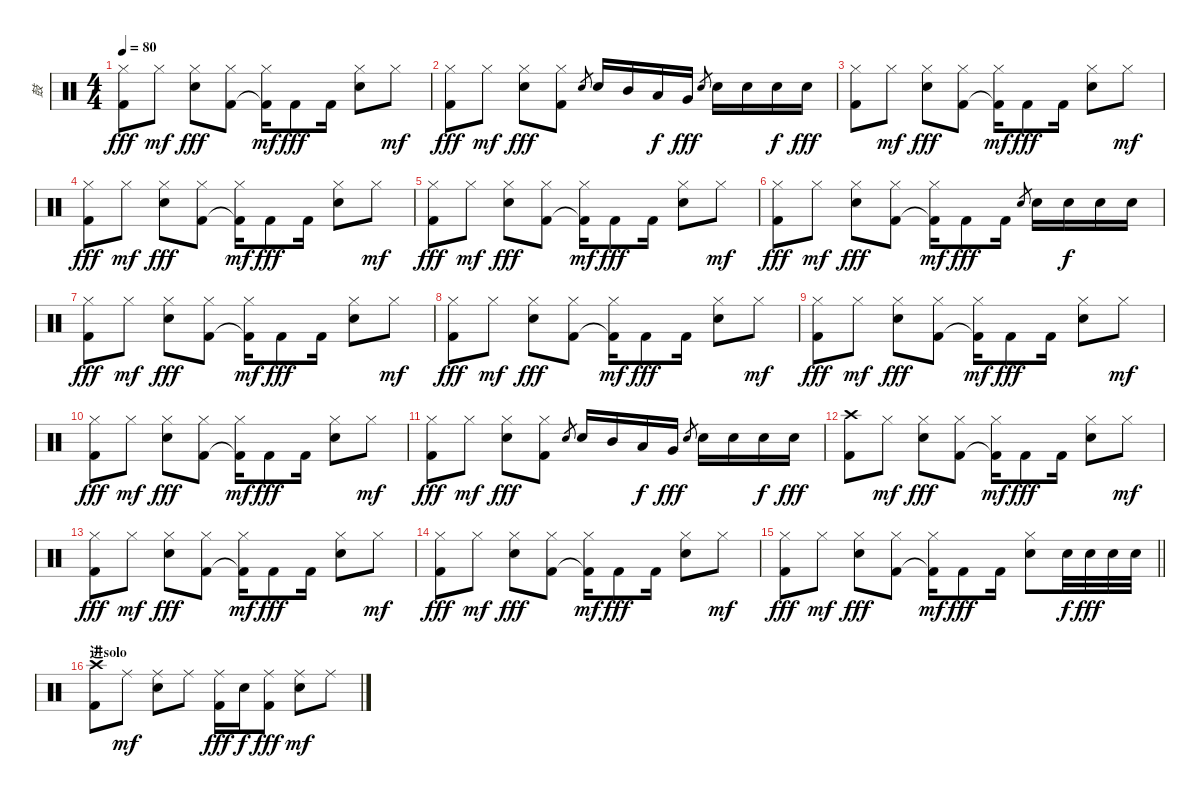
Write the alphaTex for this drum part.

\track ("鼓" "鼓") {instrument percussion}
\staff {score}
\articulation defaults
\ts (4 4)
\tempo 80
\clef neutral
\ks c
("Hi-Hat (closed)" "Kick (hit) 2").8{dy fff} "Hi-Hat (closed)".8{dy mf} ("Hi-Hat (closed)" "Electric Snare (hit)").8{dy fff} ("Hi-Hat (closed)" "Kick (hit) 2").8 ("Hi-Hat (closed)" "Kick (hit) 2"{t}).16{dy mf} "Kick (hit) 2".8{dy fff} "Kick (hit) 2".16 ("Hi-Hat (closed)" "Electric Snare (hit)").8 "Hi-Hat (closed)".8{dy mf} |
("Hi-Hat (closed)" "Kick (hit) 2").8{dy fff} "Hi-Hat (closed)".8{dy mf} ("Hi-Hat (closed)" "Electric Snare (hit)").8{dy fff} ("Hi-Hat (closed)" "Kick (hit) 2").8 "Electric Snare (hit)".8{gr} "Electric Snare (hit)".16 "Mid Tom (hit)".16 "Low Tom (hit)".16{dy f} "Very Low Tom (hit)".16{dy fff} "Electric Snare (hit)".8{gr} "Electric Snare (hit)".16 "Electric Snare (hit)".16 "Electric Snare (hit)".16{dy f} "Electric Snare (hit)".16{dy fff} |
("Hi-Hat (closed)" "Kick (hit) 2").8 "Hi-Hat (closed)".8{dy mf} ("Hi-Hat (closed)" "Electric Snare (hit)").8{dy fff} ("Hi-Hat (closed)" "Kick (hit) 2").8 ("Hi-Hat (closed)" "Kick (hit) 2"{t}).16{dy mf} "Kick (hit) 2".8{dy fff} "Kick (hit) 2".16 ("Hi-Hat (closed)" "Electric Snare (hit)").8 "Hi-Hat (closed)".8{dy mf} |
("Hi-Hat (closed)" "Kick (hit) 2").8{dy fff} "Hi-Hat (closed)".8{dy mf} ("Hi-Hat (closed)" "Electric Snare (hit)").8{dy fff} ("Hi-Hat (closed)" "Kick (hit) 2").8 ("Hi-Hat (closed)" "Kick (hit) 2"{t}).16{dy mf} "Kick (hit) 2".8{dy fff} "Kick (hit) 2".16 ("Hi-Hat (closed)" "Electric Snare (hit)").8 "Hi-Hat (closed)".8{dy mf} |
("Hi-Hat (closed)" "Kick (hit) 2").8{dy fff} "Hi-Hat (closed)".8{dy mf} ("Hi-Hat (closed)" "Electric Snare (hit)").8{dy fff} ("Hi-Hat (closed)" "Kick (hit) 2").8 ("Hi-Hat (closed)" "Kick (hit) 2"{t}).16{dy mf} "Kick (hit) 2".8{dy fff} "Kick (hit) 2".16 ("Hi-Hat (closed)" "Electric Snare (hit)").8 "Hi-Hat (closed)".8{dy mf} |
("Hi-Hat (closed)" "Kick (hit) 2").8{dy fff} "Hi-Hat (closed)".8{dy mf} ("Hi-Hat (closed)" "Electric Snare (hit)").8{dy fff} ("Hi-Hat (closed)" "Kick (hit) 2").8 ("Hi-Hat (closed)" "Kick (hit) 2"{t}).16{dy mf} "Kick (hit) 2".8{dy fff} "Kick (hit) 2".16 "Electric Snare (hit)".8{gr} "Electric Snare (hit)".16 "Electric Snare (hit)".16{dy f} "Electric Snare (hit)".16 "Electric Snare (hit)".16 |
("Hi-Hat (closed)" "Kick (hit) 2").8{dy fff} "Hi-Hat (closed)".8{dy mf} ("Hi-Hat (closed)" "Electric Snare (hit)").8{dy fff} ("Hi-Hat (closed)" "Kick (hit) 2").8 ("Hi-Hat (closed)" "Kick (hit) 2"{t}).16{dy mf} "Kick (hit) 2".8{dy fff} "Kick (hit) 2".16 ("Hi-Hat (closed)" "Electric Snare (hit)").8 "Hi-Hat (closed)".8{dy mf} |
("Hi-Hat (closed)" "Kick (hit) 2").8{dy fff} "Hi-Hat (closed)".8{dy mf} ("Hi-Hat (closed)" "Electric Snare (hit)").8{dy fff} ("Hi-Hat (closed)" "Kick (hit) 2").8 ("Hi-Hat (closed)" "Kick (hit) 2"{t}).16{dy mf} "Kick (hit) 2".8{dy fff} "Kick (hit) 2".16 ("Hi-Hat (closed)" "Electric Snare (hit)").8 "Hi-Hat (closed)".8{dy mf} |
("Hi-Hat (closed)" "Kick (hit) 2").8{dy fff} "Hi-Hat (closed)".8{dy mf} ("Hi-Hat (closed)" "Electric Snare (hit)").8{dy fff} ("Hi-Hat (closed)" "Kick (hit) 2").8 ("Hi-Hat (closed)" "Kick (hit) 2"{t}).16{dy mf} "Kick (hit) 2".8{dy fff} "Kick (hit) 2".16 ("Hi-Hat (closed)" "Electric Snare (hit)").8 "Hi-Hat (closed)".8{dy mf} |
("Hi-Hat (closed)" "Kick (hit) 2").8{dy fff} "Hi-Hat (closed)".8{dy mf} ("Hi-Hat (closed)" "Electric Snare (hit)").8{dy fff} ("Hi-Hat (closed)" "Kick (hit) 2").8 ("Hi-Hat (closed)" "Kick (hit) 2"{t}).16{dy mf} "Kick (hit) 2".8{dy fff} "Kick (hit) 2".16 ("Hi-Hat (closed)" "Electric Snare (hit)").8 "Hi-Hat (closed)".8{dy mf} |
("Hi-Hat (closed)" "Kick (hit) 2").8{dy fff} "Hi-Hat (closed)".8{dy mf} ("Hi-Hat (closed)" "Electric Snare (hit)").8{dy fff} ("Hi-Hat (closed)" "Kick (hit) 2").8 "Electric Snare (hit)".8{gr} "Electric Snare (hit)".16 "Mid Tom (hit)".16 "Low Tom (hit)".16{dy f} "Very Low Tom (hit)".16{dy fff} "Electric Snare (hit)".8{gr} "Electric Snare (hit)".16 "Electric Snare (hit)".16 "Electric Snare (hit)".16{dy f} "Electric Snare (hit)".16{dy fff} |
("Crash high (hit)" "Kick (hit) 2").8 "Hi-Hat (closed)".8{dy mf} ("Hi-Hat (closed)" "Electric Snare (hit)").8{dy fff} ("Hi-Hat (closed)" "Kick (hit) 2").8 ("Hi-Hat (closed)" "Kick (hit) 2"{t}).16{dy mf} "Kick (hit) 2".8{dy fff} "Kick (hit) 2".16 ("Hi-Hat (closed)" "Electric Snare (hit)").8 "Hi-Hat (closed)".8{dy mf} |
("Hi-Hat (closed)" "Kick (hit) 2").8{dy fff} "Hi-Hat (closed)".8{dy mf} ("Hi-Hat (closed)" "Electric Snare (hit)").8{dy fff} ("Hi-Hat (closed)" "Kick (hit) 2").8 ("Hi-Hat (closed)" "Kick (hit) 2"{t}).16{dy mf} "Kick (hit) 2".8{dy fff} "Kick (hit) 2".16 ("Hi-Hat (closed)" "Electric Snare (hit)").8 "Hi-Hat (closed)".8{dy mf} |
("Hi-Hat (closed)" "Kick (hit) 2").8{dy fff} "Hi-Hat (closed)".8{dy mf} ("Hi-Hat (closed)" "Electric Snare (hit)").8{dy fff} ("Hi-Hat (closed)" "Kick (hit) 2").8 ("Hi-Hat (closed)" "Kick (hit) 2"{t}).16{dy mf} "Kick (hit) 2".8{dy fff} "Kick (hit) 2".16 ("Hi-Hat (closed)" "Electric Snare (hit)").8 "Hi-Hat (closed)".8{dy mf} |
\barLineRight lightlight
("Hi-Hat (closed)" "Kick (hit) 2").8{dy fff} "Hi-Hat (closed)".8{dy mf} ("Hi-Hat (closed)" "Snare (hit) 2").8{dy fff} ("Hi-Hat (closed)" "Kick (hit) 2").8 ("Hi-Hat (closed)" "Kick (hit) 2"{t}).16{dy mf} "Kick (hit) 2".8{dy fff} "Kick (hit) 2".16 ("Hi-Hat (closed)" "Electric Snare (hit)").8 "Electric Snare (hit)".32{dy f} "Electric Snare (hit)".32{dy fff} "Electric Snare (hit)".32 "Electric Snare (hit)".32 |
\section ("" "进solo")
("Crash high (hit)" "Kick (hit) 2").8 "Ride (middle)".8{dy mf} ("Ride (middle)" "Electric Snare (hit)").8 "Ride (middle)".8 ("Ride (middle)" "Kick (hit) 2").16{dy fff} "Electric Snare (hit)".16{dy f} ("Ride (middle)" "Kick (hit) 2").8{dy fff} ("Ride (middle)" "Electric Snare (hit)").8{dy mf} "Ride (middle)".8
